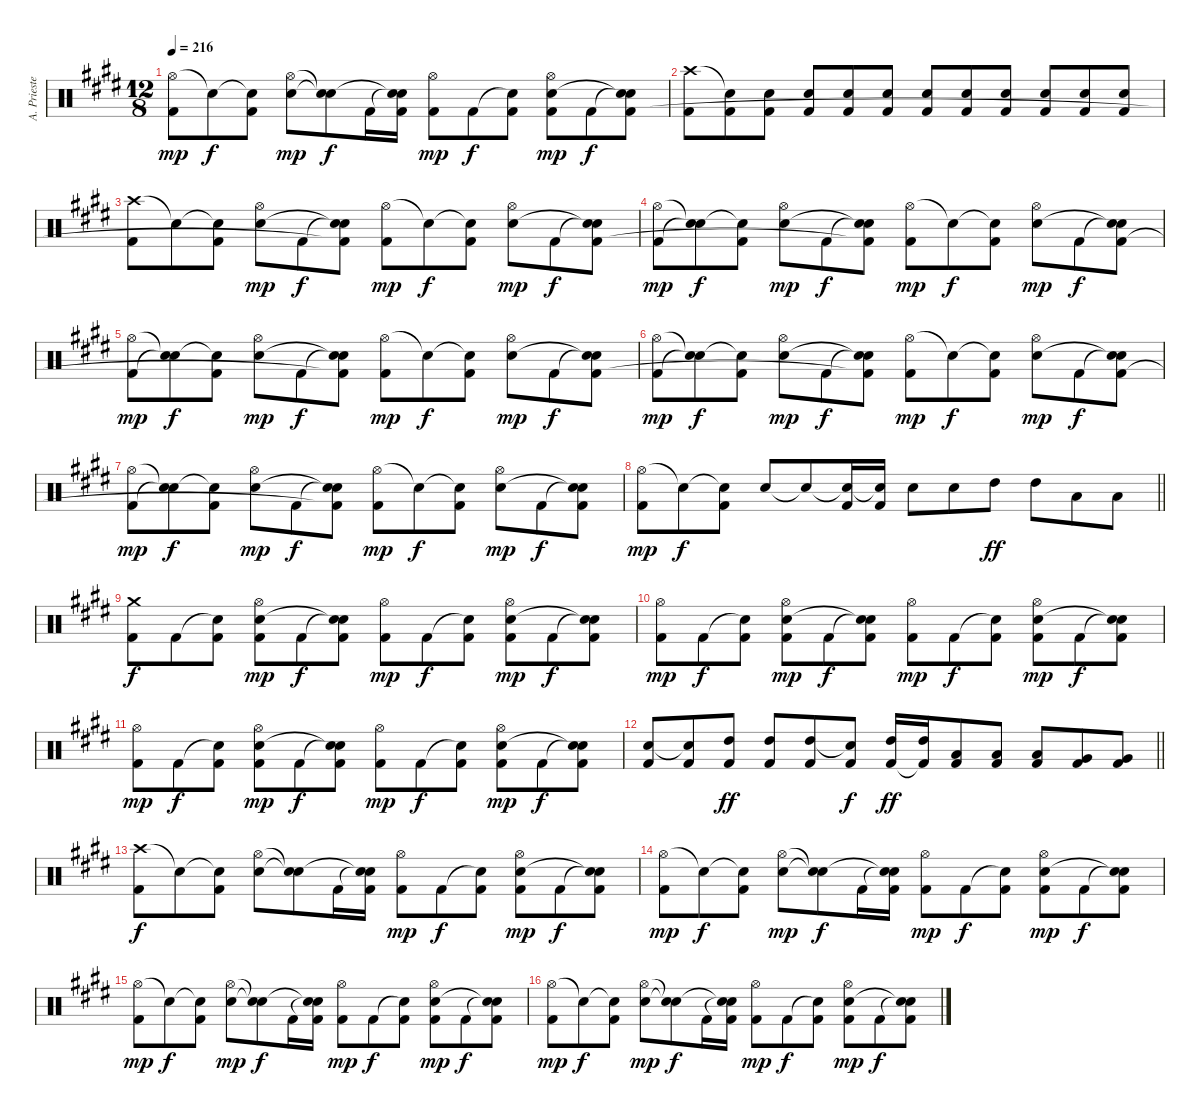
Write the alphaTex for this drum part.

\track ("A. Priester" "A. Prieste") {instrument percussion}
\staff {score}
\articulation defaults
\ts (12 8)
\tempo 216
\clef neutral
\ks e
("Hi-Hat (open)" "Kick (hit) 2").8{dy mp} "Snare (hit)"{t}.8{dy f} ("Snare (hit)"{t} "Kick (hit) 2").8 ("Hi-Hat (open)" "Electric Snare (hit)").8{dy mp} ("Snare (hit)"{t} "Snare (hit)"{t}).8{dy f} "Kick (hit) 2".16 ("Snare (hit)"{t} "Snare (hit)"{t} "Kick (hit) 2").16 ("Hi-Hat (open)" "Kick (hit) 2").8{dy mp} "Kick (hit) 2".8{dy f} ("Snare (hit)"{t} "Kick (hit) 2").8 ("Hi-Hat (open)" "Electric Snare (hit)" "Kick (hit) 2").8{dy mp} "Kick (hit) 2".8{dy f} ("Snare (hit)"{t} "Snare (hit)"{t} "Kick (hit) 2").8 |
("Crash high (hit)" "Kick (hit) 2").8 ("Snare (hit)"{t} "Kick (hit) 2").8 ("Electric Snare (hit)" "Kick (hit) 2").8 ("Electric Snare (hit)" "Kick (hit) 2").8 ("Electric Snare (hit)" "Kick (hit) 2").8 ("Electric Snare (hit)" "Kick (hit) 2").8 ("Electric Snare (hit)" "Kick (hit) 2").8 ("Electric Snare (hit)" "Kick (hit) 2").8 ("Electric Snare (hit)" "Kick (hit) 2").8 ("Electric Snare (hit)" "Kick (hit) 2").8 ("Electric Snare (hit)" "Kick (hit) 2").8 ("Electric Snare (hit)" "Kick (hit) 2").8 |
("Crash high (hit)" "Kick (hit) 2").8 "Snare (hit)"{t}.8 ("Snare (hit)"{t} "Kick (hit) 2").8 ("Hi-Hat (open)" "Electric Snare (hit)").8{dy mp} "Kick (hit) 2".8{dy f} ("Snare (hit)"{t} "Snare (hit)"{t} "Kick (hit) 2"{t}).8 ("Hi-Hat (open)" "Kick (hit) 2").8{dy mp} "Snare (hit)"{t}.8{dy f} ("Snare (hit)"{t} "Kick (hit) 2").8 ("Hi-Hat (open)" "Electric Snare (hit)").8{dy mp} "Kick (hit) 2".8{dy f} ("Snare (hit)"{t} "Snare (hit)"{t} "Kick (hit) 2").8 |
("Hi-Hat (open)" "Kick (hit) 2").8{dy mp} ("Snare (hit)"{t} "Snare (hit)"{t}).8{dy f} ("Snare (hit)"{t} "Kick (hit) 2").8 ("Hi-Hat (open)" "Electric Snare (hit)").8{dy mp} "Kick (hit) 2".8{dy f} ("Snare (hit)"{t} "Snare (hit)"{t} "Kick (hit) 2"{t}).8 ("Hi-Hat (open)" "Kick (hit) 2").8{dy mp} "Snare (hit)"{t}.8{dy f} ("Snare (hit)"{t} "Kick (hit) 2").8 ("Hi-Hat (open)" "Electric Snare (hit)").8{dy mp} "Kick (hit) 2".8{dy f} ("Snare (hit)"{t} "Snare (hit)"{t} "Kick (hit) 2").8 |
("Hi-Hat (open)" "Kick (hit) 2").8{dy mp} ("Snare (hit)"{t} "Snare (hit)"{t}).8{dy f} ("Snare (hit)"{t} "Kick (hit) 2").8 ("Hi-Hat (open)" "Electric Snare (hit)").8{dy mp} "Kick (hit) 2".8{dy f} ("Snare (hit)"{t} "Snare (hit)"{t} "Kick (hit) 2"{t}).8 ("Hi-Hat (open)" "Kick (hit) 2").8{dy mp} "Snare (hit)"{t}.8{dy f} ("Snare (hit)"{t} "Kick (hit) 2").8 ("Hi-Hat (open)" "Electric Snare (hit)").8{dy mp} "Kick (hit) 2".8{dy f} ("Snare (hit)"{t} "Snare (hit)"{t} "Kick (hit) 2").8 |
("Hi-Hat (open)" "Kick (hit) 2").8{dy mp} ("Snare (hit)"{t} "Snare (hit)"{t}).8{dy f} ("Snare (hit)"{t} "Kick (hit) 2").8 ("Hi-Hat (open)" "Electric Snare (hit)").8{dy mp} "Kick (hit) 2".8{dy f} ("Snare (hit)"{t} "Snare (hit)"{t} "Kick (hit) 2"{t}).8 ("Hi-Hat (open)" "Kick (hit) 2").8{dy mp} "Snare (hit)"{t}.8{dy f} ("Snare (hit)"{t} "Kick (hit) 2").8 ("Hi-Hat (open)" "Electric Snare (hit)").8{dy mp} "Kick (hit) 2".8{dy f} ("Snare (hit)"{t} "Snare (hit)"{t} "Kick (hit) 2").8 |
("Hi-Hat (open)" "Kick (hit) 2").8{dy mp} ("Snare (hit)"{t} "Snare (hit)"{t}).8{dy f} ("Snare (hit)"{t} "Kick (hit) 2").8 ("Hi-Hat (open)" "Electric Snare (hit)").8{dy mp} "Kick (hit) 2".8{dy f} ("Snare (hit)"{t} "Snare (hit)"{t} "Kick (hit) 2"{t}).8 ("Hi-Hat (open)" "Kick (hit) 2").8{dy mp} "Snare (hit)"{t}.8{dy f} ("Snare (hit)"{t} "Kick (hit) 2").8 ("Hi-Hat (open)" "Electric Snare (hit)").8{dy mp} "Kick (hit) 2".8{dy f} ("Snare (hit)"{t} "Snare (hit)"{t} "Kick (hit) 2").8 |
\barLineRight lightlight
("Hi-Hat (open)" "Kick (hit) 2").8{dy mp} "Snare (hit)"{t}.8{dy f} ("Snare (hit)"{t} "Kick (hit) 2").8 "Electric Snare (hit)".8 "Snare (hit)"{t}.8 ("Snare (hit)"{t} "Kick (hit) 2").16 ("Snare (hit)"{t} "Kick (hit) 2").16 "Electric Snare (hit)".8 "Electric Snare (hit)".8 "High Tom (hit)".8{dy ff} "High Tom (hit)".8 "Low Tom (hit)".8 "Low Tom (hit)".8 |
("Crash medium (hit)" "Kick (hit) 2").8{dy f} "Kick (hit) 2".8 ("Snare (hit)"{t} "Kick (hit) 2").8 ("Hi-Hat (open)" "Electric Snare (hit)" "Kick (hit) 2").8{dy mp} "Kick (hit) 2".8{dy f} ("Snare (hit)"{t} "Snare (hit)"{t} "Kick (hit) 2").8 ("Hi-Hat (open)" "Kick (hit) 2").8{dy mp} "Kick (hit) 2".8{dy f} ("Snare (hit)"{t} "Kick (hit) 2").8 ("Hi-Hat (open)" "Electric Snare (hit)" "Kick (hit) 2").8{dy mp} "Kick (hit) 2".8{dy f} ("Snare (hit)"{t} "Snare (hit)"{t} "Kick (hit) 2").8 |
("Hi-Hat (open)" "Kick (hit) 2").8{dy mp} "Kick (hit) 2".8{dy f} ("Snare (hit)"{t} "Kick (hit) 2").8 ("Hi-Hat (open)" "Electric Snare (hit)" "Kick (hit) 2").8{dy mp} "Kick (hit) 2".8{dy f} ("Snare (hit)"{t} "Snare (hit)"{t} "Kick (hit) 2").8 ("Hi-Hat (open)" "Kick (hit) 2").8{dy mp} "Kick (hit) 2".8{dy f} ("Snare (hit)"{t} "Kick (hit) 2").8 ("Hi-Hat (open)" "Electric Snare (hit)" "Kick (hit) 2").8{dy mp} "Kick (hit) 2".8{dy f} ("Snare (hit)"{t} "Snare (hit)"{t} "Kick (hit) 2").8 |
("Hi-Hat (open)" "Kick (hit) 2").8{dy mp} "Kick (hit) 2".8{dy f} ("Snare (hit)"{t} "Kick (hit) 2").8 ("Hi-Hat (open)" "Electric Snare (hit)" "Kick (hit) 2").8{dy mp} "Kick (hit) 2".8{dy f} ("Snare (hit)"{t} "Snare (hit)"{t} "Kick (hit) 2").8 ("Hi-Hat (open)" "Kick (hit) 2").8{dy mp} "Kick (hit) 2".8{dy f} ("Snare (hit)"{t} "Kick (hit) 2").8 ("Hi-Hat (open)" "Electric Snare (hit)" "Kick (hit) 2").8{dy mp} "Kick (hit) 2".8{dy f} ("Snare (hit)"{t} "Snare (hit)"{t} "Kick (hit) 2").8 |
\barLineRight lightlight
("Electric Snare (hit)" "Kick (hit) 2").8 ("Snare (hit)"{t} "Kick (hit) 2").8 ("High Tom (hit)" "Kick (hit) 2").8{dy ff} ("High Tom (hit)" "Kick (hit) 2").8 ("High Tom (hit)" "Kick (hit) 2").8 ("Snare (hit)"{t} "Kick (hit) 2").8{dy f} ("High Tom (hit)" "Kick (hit) 2").16{dy ff} ("High Tom (hit)" "Kick (hit) 2"{t}).16 ("Low Tom (hit)" "Kick (hit) 2").8 ("Low Tom (hit)" "Kick (hit) 2").8 ("Low Tom (hit)" "Kick (hit) 2").8 ("Very Low Tom (hit)" "Kick (hit) 2").8 ("Very Low Tom (hit)" "Kick (hit) 2").8 |
("Crash high (hit)" "Kick (hit) 2").8{dy f} "Snare (hit)"{t}.8 ("Snare (hit)"{t} "Kick (hit) 2").8 ("Hi-Hat (open)" "Electric Snare (hit)").8 ("Snare (hit)"{t} "Snare (hit)"{t}).8 "Kick (hit) 2".16 ("Snare (hit)"{t} "Snare (hit)"{t} "Kick (hit) 2").16 ("Hi-Hat (open)" "Kick (hit) 2").8{dy mp} "Kick (hit) 2".8{dy f} ("Snare (hit)"{t} "Kick (hit) 2").8 ("Hi-Hat (open)" "Electric Snare (hit)" "Kick (hit) 2").8{dy mp} "Kick (hit) 2".8{dy f} ("Snare (hit)"{t} "Snare (hit)"{t} "Kick (hit) 2").8 |
("Hi-Hat (open)" "Kick (hit) 2").8{dy mp} "Snare (hit)"{t}.8{dy f} ("Snare (hit)"{t} "Kick (hit) 2").8 ("Hi-Hat (open)" "Electric Snare (hit)").8{dy mp} ("Snare (hit)"{t} "Snare (hit)"{t}).8{dy f} "Kick (hit) 2".16 ("Snare (hit)"{t} "Snare (hit)"{t} "Kick (hit) 2").16 ("Hi-Hat (open)" "Kick (hit) 2").8{dy mp} "Kick (hit) 2".8{dy f} ("Snare (hit)"{t} "Kick (hit) 2").8 ("Hi-Hat (open)" "Electric Snare (hit)" "Kick (hit) 2").8{dy mp} "Kick (hit) 2".8{dy f} ("Snare (hit)"{t} "Snare (hit)"{t} "Kick (hit) 2").8 |
("Hi-Hat (open)" "Kick (hit) 2").8{dy mp} "Snare (hit)"{t}.8{dy f} ("Snare (hit)"{t} "Kick (hit) 2").8 ("Hi-Hat (open)" "Electric Snare (hit)").8{dy mp} ("Snare (hit)"{t} "Snare (hit)"{t}).8{dy f} "Kick (hit) 2".16 ("Snare (hit)"{t} "Snare (hit)"{t} "Kick (hit) 2").16 ("Hi-Hat (open)" "Kick (hit) 2").8{dy mp} "Kick (hit) 2".8{dy f} ("Snare (hit)"{t} "Kick (hit) 2").8 ("Hi-Hat (open)" "Electric Snare (hit)" "Kick (hit) 2").8{dy mp} "Kick (hit) 2".8{dy f} ("Snare (hit)"{t} "Snare (hit)"{t} "Kick (hit) 2").8 |
("Hi-Hat (open)" "Kick (hit) 2").8{dy mp} "Snare (hit)"{t}.8{dy f} ("Snare (hit)"{t} "Kick (hit) 2").8 ("Hi-Hat (open)" "Electric Snare (hit)").8{dy mp} ("Snare (hit)"{t} "Snare (hit)"{t}).8{dy f} "Kick (hit) 2".16 ("Snare (hit)"{t} "Snare (hit)"{t} "Kick (hit) 2").16 ("Hi-Hat (open)" "Kick (hit) 2").8{dy mp} "Kick (hit) 2".8{dy f} ("Snare (hit)"{t} "Kick (hit) 2").8 ("Hi-Hat (open)" "Electric Snare (hit)" "Kick (hit) 2").8{dy mp} "Kick (hit) 2".8{dy f} ("Snare (hit)"{t} "Snare (hit)"{t} "Kick (hit) 2").8
